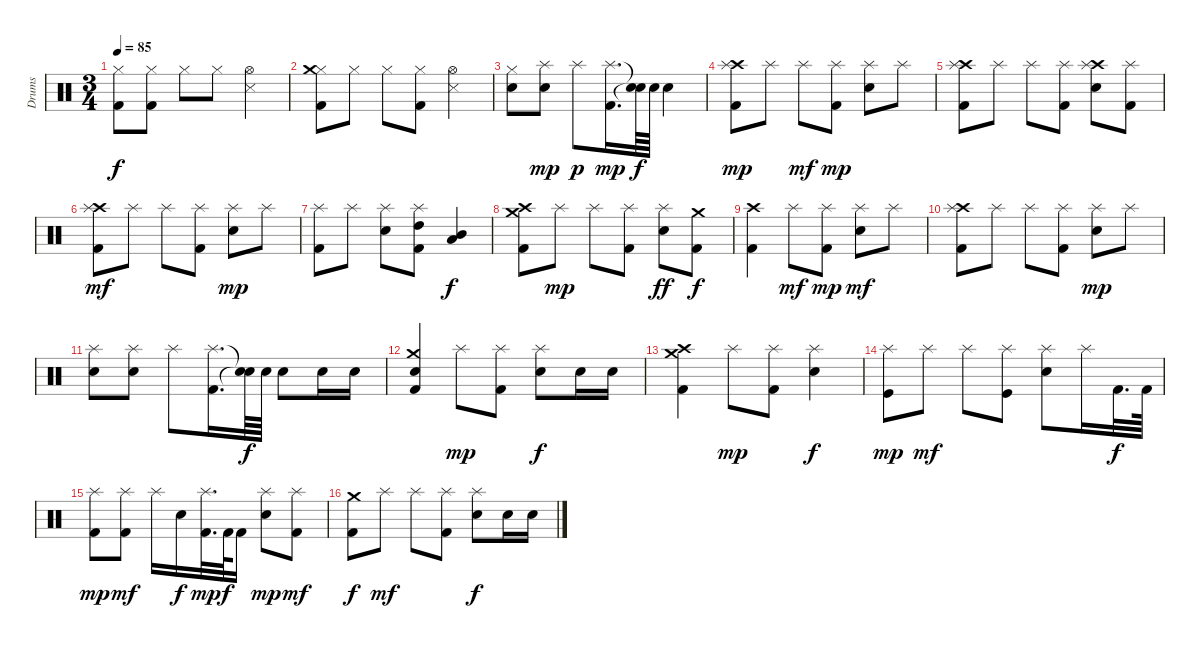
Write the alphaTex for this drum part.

\track ("Drums" "Drums") {instrument percussion}
\staff {score}
\articulation defaults
\ts (3 4)
\tempo 85
\clef neutral
\ks c
("Kick (hit) 2" "Hi-Hat (closed)").8{dy f} ("Kick (hit) 2" "Hi-Hat (closed)").8 "Hi-Hat (closed)".8 "Hi-Hat (closed)".8 ("Snare (side stick) 3" "Hi-Hat (open)").4 |
("Kick (hit) 2" "Hi-Hat (closed)" "Crash medium (hit)").8 "Hi-Hat (closed)".8 "Hi-Hat (closed)".8 ("Kick (hit) 2" "Hi-Hat (closed)").8 ("Snare (side stick) 3" "Hi-Hat (open)").4 |
("Snare (hit) 2" "Hi-Hat (closed)").8 ("Snare (hit) 2" "Splash (hit)").8{dy mp} "Splash (hit)".8{dy p} ("Kick (hit) 2" "Splash (hit)").16{d dy mp} ("Snare (hit)"{t} "Snare (hit)"{t}).64{dy f} "Snare (hit) 2".64 "Snare (hit) 2".4 |
("Kick (hit) 2" "Crash high (hit)" "Splash (hit)").8{dy mp} "Splash (hit)".8 "Splash (hit)".8{dy mf} ("Kick (hit) 2" "Splash (hit)").8{dy mp} ("Snare (hit) 2" "Splash (hit)").8 "Splash (hit)".8 |
("Kick (hit) 2" "Crash high (hit)" "Splash (hit)").8 "Splash (hit)".8 "Splash (hit)".8 ("Kick (hit) 2" "Splash (hit)").8 ("Snare (hit) 2" "Crash high (hit)" "Splash (hit)").8 ("Kick (hit) 2" "Splash (hit)").8 |
("Kick (hit) 2" "Crash high (hit)" "Splash (hit)").8{dy mf} "Splash (hit)".8 "Splash (hit)".8 ("Kick (hit) 2" "Splash (hit)").8 ("Snare (hit) 2" "Splash (hit)").8{dy mp} "Splash (hit)".8 |
("Kick (hit) 2" "Splash (hit)").8 "Splash (hit)".8 ("Snare (hit) 2" "Splash (hit)").8 ("Kick (hit) 2" "High Tom (hit)" "Splash (hit)").8 ("Low Tom (hit)" "Mid Tom (hit)").4{dy f} |
("Kick (hit) 2" "Crash high (hit)" "Crash medium (hit)").8 "Splash (hit)".8{dy mp} "Splash (hit)".8 ("Kick (hit) 2" "Splash (hit)").8 ("Snare (hit) 2" "Splash (hit)").8{dy ff} ("Kick (hit) 2" "Crash medium (hit)").8{dy f} |
("Kick (hit) 2" "Crash high (hit)").4 "Splash (hit)".8{dy mf} ("Kick (hit) 2" "Splash (hit)").8{dy mp} ("Snare (hit) 2" "Splash (hit)").8{dy mf} "Splash (hit)".8 |
("Kick (hit) 2" "Crash high (hit)" "Splash (hit)").8 "Splash (hit)".8 "Splash (hit)".8 ("Kick (hit) 2" "Splash (hit)").8 ("Snare (hit) 2" "Splash (hit)").8{dy mp} "Splash (hit)".8 |
("Snare (hit) 2" "Splash (hit)").8 ("Snare (hit) 2" "Splash (hit)").8 "Splash (hit)".8 ("Kick (hit) 2" "Splash (hit)").16{d} ("Snare (hit)"{t} "Snare (hit)"{t}).64{dy f} "Snare (hit) 2".64 "Snare (hit) 2".8 "Snare (hit) 2".16 "Snare (hit) 2".16 |
("Kick (hit) 2" "Snare (hit) 2" "Crash medium (hit)").4 "Splash (hit)".8{dy mp} ("Kick (hit) 2" "Splash (hit)").8 ("Snare (hit) 2" "Splash (hit)").8{dy f} "Snare (hit) 2".16 "Snare (hit) 2".16 |
("Kick (hit) 2" "Crash high (hit)" "Crash medium (hit)").4 "Splash (hit)".8{dy mp} ("Kick (hit) 2" "Splash (hit)").8 ("Snare (hit) 2" "Splash (hit)").4{dy f} |
("Kick (hit)" "Splash (hit)").8{dy mp} "Splash (hit)".8{dy mf} "Splash (hit)".8 ("Kick (hit)" "Splash (hit)").8 ("Snare (hit) 2" "Splash (hit)").8 "Splash (hit)".16 "Kick (hit) 2".32{d dy f} "Kick (hit) 2".64 |
("Kick (hit) 2" "Splash (hit)").8{dy mp} ("Kick (hit) 2" "Splash (hit)").8{dy mf} "Splash (hit)".16 "Snare (hit) 2".16{dy f} ("Kick (hit) 2" "Splash (hit)").32{d dy mp} "Kick (hit) 2".64{dy f} "Kick (hit) 2".16 ("Snare (hit) 2" "Splash (hit)").8{dy mp} ("Kick (hit) 2" "Splash (hit)").8{dy mf} |
("Kick (hit) 2" "Crash medium (hit)").8{dy f} "Splash (hit)".8{dy mf} "Splash (hit)".8 ("Kick (hit) 2" "Splash (hit)").8 ("Snare (hit) 2" "Splash (hit)").8{dy f} "Snare (hit) 2".16 "Snare (hit) 2".16
